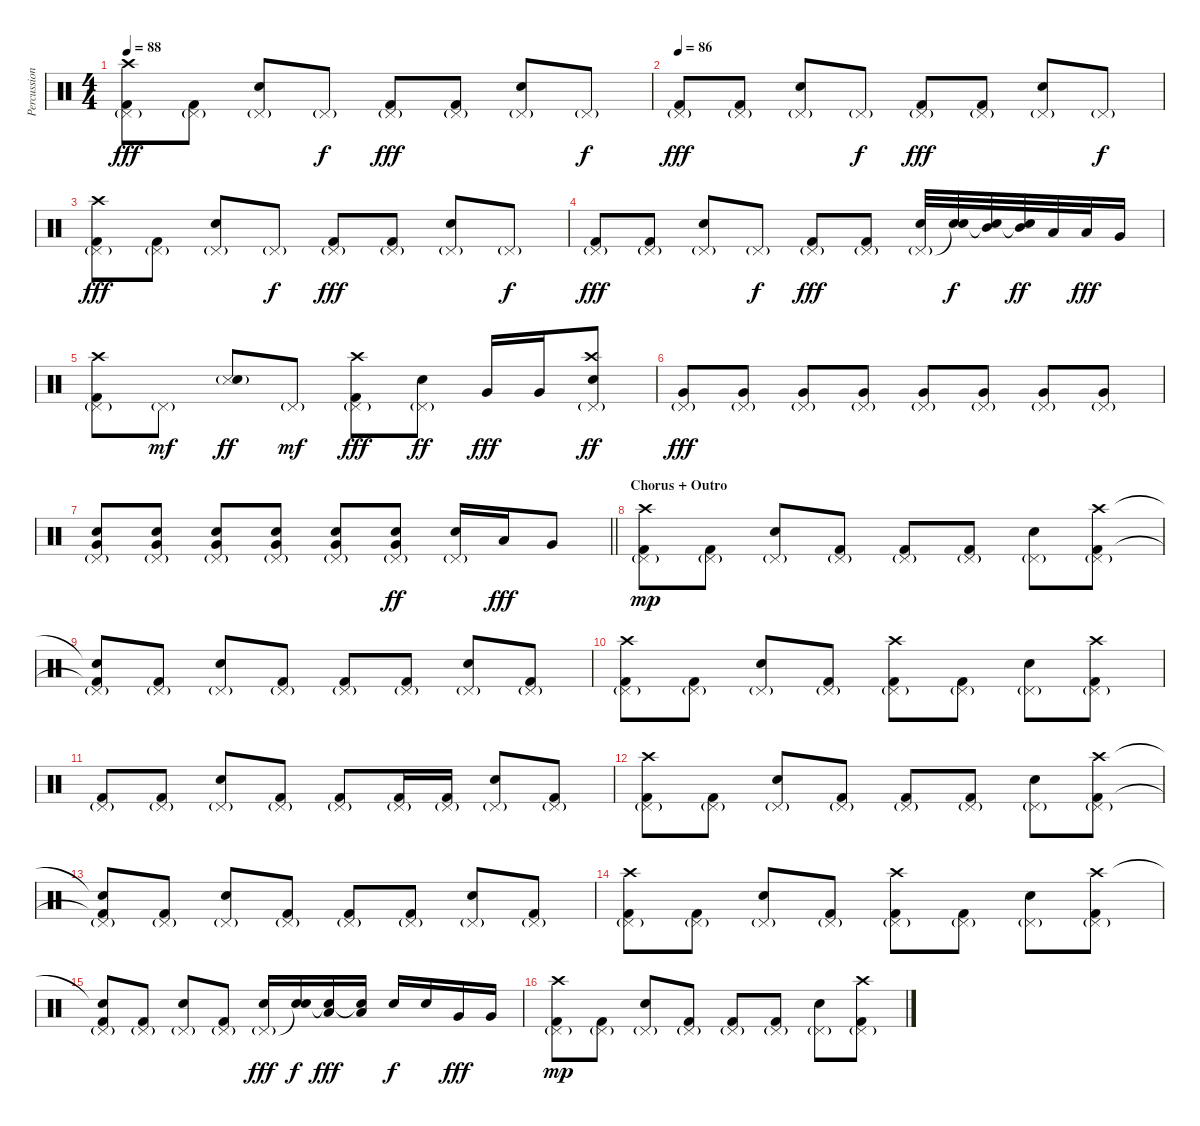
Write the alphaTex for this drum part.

\track ("Percussion" "Percussion") {instrument percussion}
\staff {score}
\articulation defaults
\ts (4 4)
\tempo 88
\clef neutral
\ks c
("Pedal Hi-Hat (hit)"{g} "Kick (hit) 2" "Crash high (hit)").8{dy fff} ("Pedal Hi-Hat (hit)"{g} "Kick (hit) 2").8 ("Pedal Hi-Hat (hit)"{g} "Snare (hit) 2").8 "Pedal Hi-Hat (hit)"{g}.8{dy f} ("Pedal Hi-Hat (hit)"{g} "Kick (hit) 2").8{dy fff} ("Pedal Hi-Hat (hit)"{g} "Kick (hit) 2").8 ("Pedal Hi-Hat (hit)"{g} "Snare (hit) 2").8 "Pedal Hi-Hat (hit)"{g}.8{dy f} |
\tempo 86
("Pedal Hi-Hat (hit)"{g} "Kick (hit) 2").8{dy fff} ("Pedal Hi-Hat (hit)"{g} "Kick (hit) 2").8 ("Pedal Hi-Hat (hit)"{g} "Snare (hit) 2").8 "Pedal Hi-Hat (hit)"{g}.8{dy f} ("Pedal Hi-Hat (hit)"{g} "Kick (hit) 2").8{dy fff} ("Pedal Hi-Hat (hit)"{g} "Kick (hit) 2").8 ("Pedal Hi-Hat (hit)"{g} "Snare (hit) 2").8 "Pedal Hi-Hat (hit)"{g}.8{dy f} |
("Pedal Hi-Hat (hit)"{g} "Kick (hit) 2" "Crash high (hit)").8{dy fff} ("Pedal Hi-Hat (hit)"{g} "Kick (hit) 2").8 ("Pedal Hi-Hat (hit)"{g} "Snare (hit) 2").8 "Pedal Hi-Hat (hit)"{g}.8{dy f} ("Pedal Hi-Hat (hit)"{g} "Kick (hit) 2").8{dy fff} ("Pedal Hi-Hat (hit)"{g} "Kick (hit) 2").8 ("Pedal Hi-Hat (hit)"{g} "Snare (hit) 2").8 "Pedal Hi-Hat (hit)"{g}.8{dy f} |
("Pedal Hi-Hat (hit)"{g} "Kick (hit) 2").8{dy fff} ("Pedal Hi-Hat (hit)"{g} "Kick (hit) 2").8 ("Pedal Hi-Hat (hit)"{g} "Snare (hit) 2").8 "Pedal Hi-Hat (hit)"{g}.8{dy f} ("Pedal Hi-Hat (hit)"{g} "Kick (hit) 2").8{dy fff} ("Pedal Hi-Hat (hit)"{g} "Kick (hit) 2").8 ("Pedal Hi-Hat (hit)"{g} "Snare (hit) 2").32 ("Snare (hit)"{t} "Snare (hit) 2").32{dy f} ("Snare (hit)"{t} "Mid Tom (hit)").32 ("Snare (hit)"{t} "Mid Tom (hit)").32{dy ff} "Low Tom (hit)".32 "Low Tom (hit)".32{dy fff} "Very Low Tom (hit)".16 |
("Pedal Hi-Hat (hit)"{g} "Kick (hit) 2" "Crash high (hit)").8 "Pedal Hi-Hat (hit)"{g}.8{dy mf} ("Metronome (hit)"{g} "Snare (hit) 2").8{dy ff} "Pedal Hi-Hat (hit)"{g}.8{dy mf} ("Pedal Hi-Hat (hit)"{g} "Kick (hit) 2" "Crash high (hit)").8{dy fff} ("Pedal Hi-Hat (hit)"{g} "Snare (hit) 2").8{dy ff} "Very Low Tom (hit)".16{dy fff} "Very Low Tom (hit)".16 ("Pedal Hi-Hat (hit)"{g} "Snare (hit) 2" "Crash high (hit)").8{dy ff} |
("Pedal Hi-Hat (hit)"{g} "Very Low Tom (hit)").8{dy fff} ("Pedal Hi-Hat (hit)"{g} "Very Low Tom (hit)").8 ("Pedal Hi-Hat (hit)"{g} "Very Low Tom (hit)").8 ("Pedal Hi-Hat (hit)"{g} "Very Low Tom (hit)").8 ("Pedal Hi-Hat (hit)"{g} "Very Low Tom (hit)").8 ("Pedal Hi-Hat (hit)"{g} "Very Low Tom (hit)").8 ("Pedal Hi-Hat (hit)"{g} "Very Low Tom (hit)").8 ("Pedal Hi-Hat (hit)"{g} "Very Low Tom (hit)").8 |
\barLineRight lightlight
("Pedal Hi-Hat (hit)"{g} "Snare (hit) 2" "Very Low Tom (hit)").8 ("Pedal Hi-Hat (hit)"{g} "Snare (hit) 2" "Very Low Tom (hit)").8 ("Pedal Hi-Hat (hit)"{g} "Snare (hit) 2" "Very Low Tom (hit)").8 ("Pedal Hi-Hat (hit)"{g} "Snare (hit) 2" "Very Low Tom (hit)").8 ("Pedal Hi-Hat (hit)"{g} "Snare (hit) 2" "Very Low Tom (hit)").8 ("Pedal Hi-Hat (hit)"{g} "Snare (hit) 2" "Very Low Tom (hit)").8{dy ff} ("Pedal Hi-Hat (hit)"{g} "Snare (hit) 2").16 "Low Tom (hit)".16{dy fff} "Very Low Tom (hit)".8 |
\section ("" "Chorus + Outro")
("Pedal Hi-Hat (hit)"{g} "Kick (hit) 2" "Crash high (hit)").8{dy mp} ("Pedal Hi-Hat (hit)"{g} "Kick (hit) 2").8 ("Pedal Hi-Hat (hit)"{g} "Snare (hit) 2").8 ("Pedal Hi-Hat (hit)"{g} "Kick (hit) 2").8 ("Pedal Hi-Hat (hit)"{g} "Kick (hit) 2").8 ("Pedal Hi-Hat (hit)"{g} "Kick (hit) 2").8 ("Pedal Hi-Hat (hit)"{g} "Snare (hit) 2").8 ("Pedal Hi-Hat (hit)"{g} "Kick (hit) 2" "Crash high (hit)").8 |
("Pedal Hi-Hat (hit)"{g} "Kick (hit) 2"{t} "Snare (hit)"{t}).8 ("Pedal Hi-Hat (hit)"{g} "Kick (hit) 2").8 ("Pedal Hi-Hat (hit)"{g} "Snare (hit) 2").8 ("Pedal Hi-Hat (hit)"{g} "Kick (hit) 2").8 ("Pedal Hi-Hat (hit)"{g} "Kick (hit) 2").8 ("Pedal Hi-Hat (hit)"{g} "Kick (hit) 2").8 ("Pedal Hi-Hat (hit)"{g} "Snare (hit) 2").8 ("Pedal Hi-Hat (hit)"{g} "Kick (hit) 2").8 |
("Pedal Hi-Hat (hit)"{g} "Kick (hit) 2" "Crash high (hit)").8 ("Pedal Hi-Hat (hit)"{g} "Kick (hit) 2").8 ("Pedal Hi-Hat (hit)"{g} "Snare (hit) 2").8 ("Pedal Hi-Hat (hit)"{g} "Kick (hit) 2").8 ("Pedal Hi-Hat (hit)"{g} "Kick (hit) 2" "Crash high (hit)").8 ("Pedal Hi-Hat (hit)"{g} "Kick (hit) 2").8 ("Pedal Hi-Hat (hit)"{g} "Snare (hit) 2").8 ("Pedal Hi-Hat (hit)"{g} "Kick (hit) 2" "Crash high (hit)").8 |
("Pedal Hi-Hat (hit)"{g} "Kick (hit) 2").8 ("Pedal Hi-Hat (hit)"{g} "Kick (hit) 2").8 ("Pedal Hi-Hat (hit)"{g} "Snare (hit) 2").8 ("Pedal Hi-Hat (hit)"{g} "Kick (hit) 2").8 ("Pedal Hi-Hat (hit)"{g} "Kick (hit) 2").8 ("Pedal Hi-Hat (hit)"{g} "Kick (hit) 2").16 ("Pedal Hi-Hat (hit)"{g} "Kick (hit) 2").16 ("Pedal Hi-Hat (hit)"{g} "Snare (hit) 2").8 ("Pedal Hi-Hat (hit)"{g} "Kick (hit) 2").8 |
("Pedal Hi-Hat (hit)"{g} "Kick (hit) 2" "Crash high (hit)").8 ("Pedal Hi-Hat (hit)"{g} "Kick (hit) 2").8 ("Pedal Hi-Hat (hit)"{g} "Snare (hit) 2").8 ("Pedal Hi-Hat (hit)"{g} "Kick (hit) 2").8 ("Pedal Hi-Hat (hit)"{g} "Kick (hit) 2").8 ("Pedal Hi-Hat (hit)"{g} "Kick (hit) 2").8 ("Pedal Hi-Hat (hit)"{g} "Snare (hit) 2").8 ("Pedal Hi-Hat (hit)"{g} "Kick (hit) 2" "Crash high (hit)").8 |
("Pedal Hi-Hat (hit)"{g} "Kick (hit) 2"{t} "Snare (hit)"{t}).8 ("Pedal Hi-Hat (hit)"{g} "Kick (hit) 2").8 ("Pedal Hi-Hat (hit)"{g} "Snare (hit) 2").8 ("Pedal Hi-Hat (hit)"{g} "Kick (hit) 2").8 ("Pedal Hi-Hat (hit)"{g} "Kick (hit) 2").8 ("Pedal Hi-Hat (hit)"{g} "Kick (hit) 2").8 ("Pedal Hi-Hat (hit)"{g} "Snare (hit) 2").8 ("Pedal Hi-Hat (hit)"{g} "Kick (hit) 2").8 |
("Pedal Hi-Hat (hit)"{g} "Kick (hit) 2" "Crash high (hit)").8 ("Pedal Hi-Hat (hit)"{g} "Kick (hit) 2").8 ("Pedal Hi-Hat (hit)"{g} "Snare (hit) 2").8 ("Pedal Hi-Hat (hit)"{g} "Kick (hit) 2").8 ("Pedal Hi-Hat (hit)"{g} "Kick (hit) 2" "Crash high (hit)").8 ("Pedal Hi-Hat (hit)"{g} "Kick (hit) 2").8 ("Pedal Hi-Hat (hit)"{g} "Snare (hit) 2").8 ("Pedal Hi-Hat (hit)"{g} "Kick (hit) 2" "Crash high (hit)").8 |
("Pedal Hi-Hat (hit)"{g} "Kick (hit) 2" "Snare (hit)"{t}).8 ("Pedal Hi-Hat (hit)"{g} "Kick (hit) 2").8 ("Pedal Hi-Hat (hit)"{g} "Snare (hit) 2").8 ("Pedal Hi-Hat (hit)"{g} "Kick (hit) 2").8 ("Pedal Hi-Hat (hit)"{g} "Snare (hit) 2").16{dy fff} ("Snare (hit)"{t} "Snare (hit) 2").16{dy f} ("Snare (hit)"{t} "Low Tom (hit)").16{dy fff} ("Snare (hit)"{t} "Low Tom (hit)").16 "Snare (hit) 2".16{dy f} "Snare (hit) 2".16 "Very Low Tom (hit)".16{dy fff} "Very Low Tom (hit)".16 |
("Pedal Hi-Hat (hit)"{g} "Kick (hit) 2" "Crash high (hit)").8{dy mp} ("Pedal Hi-Hat (hit)"{g} "Kick (hit) 2").8 ("Pedal Hi-Hat (hit)"{g} "Snare (hit) 2").8 ("Pedal Hi-Hat (hit)"{g} "Kick (hit) 2").8 ("Pedal Hi-Hat (hit)"{g} "Kick (hit) 2").8 ("Pedal Hi-Hat (hit)"{g} "Kick (hit) 2").8 ("Pedal Hi-Hat (hit)"{g} "Snare (hit) 2").8 ("Pedal Hi-Hat (hit)"{g} "Kick (hit) 2" "Crash high (hit)").8
